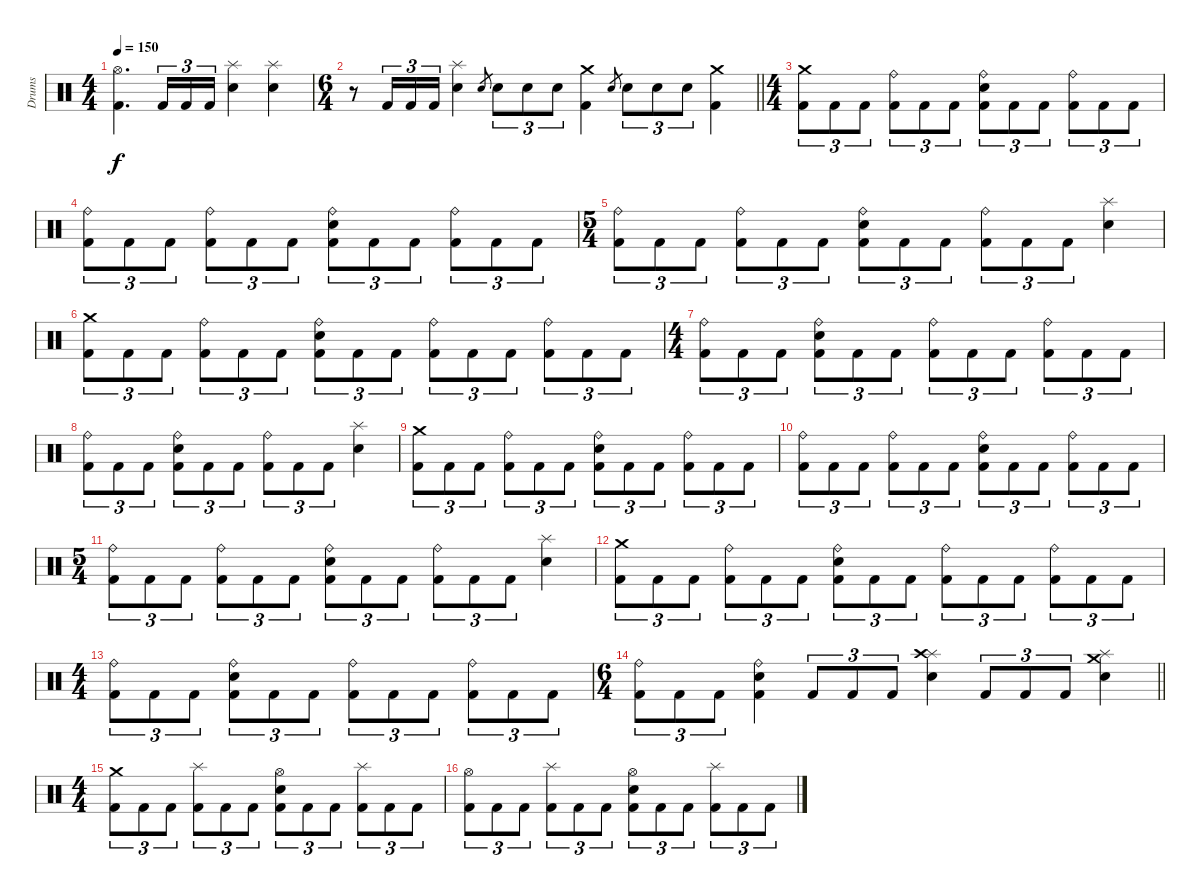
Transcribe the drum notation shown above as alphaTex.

\track ("Drums" "Drums") {instrument percussion}
\staff {score}
\articulation defaults
\ts (4 4)
\tempo 150
\clef neutral
\ks c
("Hi-Hat (open)" "Kick (hit) 2").4{d dy f} "Kick (hit) 2".16{tu (3 2)} "Kick (hit) 2".16{tu (3 2)} "Kick (hit) 2".16{tu (3 2)} ("Splash (hit)" "Electric Snare (hit)").4 ("Splash (hit)" "Electric Snare (hit)").4 |
\ts (6 4)
\barLineRight lightlight
r.8 "Kick (hit) 2".16{tu (3 2)} "Kick (hit) 2".16{tu (3 2)} "Kick (hit) 2".16{tu (3 2)} ("Splash (hit)" "Electric Snare (hit)").4 "Electric Snare (hit)".8{gr} "Electric Snare (hit)".8{tu (3 2)} "Electric Snare (hit)".8{tu (3 2)} "Electric Snare (hit)".8{tu (3 2)} ("Crash medium (hit)" "Kick (hit) 2").4 "Electric Snare (hit)".8{gr} "Electric Snare (hit)".8{tu (3 2)} "Electric Snare (hit)".8{tu (3 2)} "Electric Snare (hit)".8{tu (3 2)} ("Crash medium (hit)" "Kick (hit) 2").4 |
\ts (4 4)
("Crash medium (hit)" "Kick (hit) 2").8{tu (3 2)} "Kick (hit) 2".8{tu (3 2)} "Kick (hit) 2".8{tu (3 2)} ("Ride (bell)" "Kick (hit) 2").8{tu (3 2)} "Kick (hit) 2".8{tu (3 2)} "Kick (hit) 2".8{tu (3 2)} ("Ride (bell)" "Electric Snare (hit)" "Kick (hit) 2").8{tu (3 2)} "Kick (hit) 2".8{tu (3 2)} "Kick (hit) 2".8{tu (3 2)} ("Ride (bell)" "Kick (hit) 2").8{tu (3 2)} "Kick (hit) 2".8{tu (3 2)} "Kick (hit) 2".8{tu (3 2)} |
("Ride (bell)" "Kick (hit) 2").8{tu (3 2)} "Kick (hit) 2".8{tu (3 2)} "Kick (hit) 2".8{tu (3 2)} ("Ride (bell)" "Kick (hit) 2").8{tu (3 2)} "Kick (hit) 2".8{tu (3 2)} "Kick (hit) 2".8{tu (3 2)} ("Ride (bell)" "Electric Snare (hit)" "Kick (hit) 2").8{tu (3 2)} "Kick (hit) 2".8{tu (3 2)} "Kick (hit) 2".8{tu (3 2)} ("Ride (bell)" "Kick (hit) 2").8{tu (3 2)} "Kick (hit) 2".8{tu (3 2)} "Kick (hit) 2".8{tu (3 2)} |
\ts (5 4)
("Ride (bell)" "Kick (hit) 2").8{tu (3 2)} "Kick (hit) 2".8{tu (3 2)} "Kick (hit) 2".8{tu (3 2)} ("Ride (bell)" "Kick (hit) 2").8{tu (3 2)} "Kick (hit) 2".8{tu (3 2)} "Kick (hit) 2".8{tu (3 2)} ("Ride (bell)" "Electric Snare (hit)" "Kick (hit) 2").8{tu (3 2)} "Kick (hit) 2".8{tu (3 2)} "Kick (hit) 2".8{tu (3 2)} ("Ride (bell)" "Kick (hit) 2").8{tu (3 2)} "Kick (hit) 2".8{tu (3 2)} "Kick (hit) 2".8{tu (3 2)} ("Splash (hit)" "Electric Snare (hit)").4 |
("Crash medium (hit)" "Kick (hit) 2").8{tu (3 2)} "Kick (hit) 2".8{tu (3 2)} "Kick (hit) 2".8{tu (3 2)} ("Ride (bell)" "Kick (hit) 2").8{tu (3 2)} "Kick (hit) 2".8{tu (3 2)} "Kick (hit) 2".8{tu (3 2)} ("Ride (bell)" "Electric Snare (hit)" "Kick (hit) 2").8{tu (3 2)} "Kick (hit) 2".8{tu (3 2)} "Kick (hit) 2".8{tu (3 2)} ("Ride (bell)" "Kick (hit) 2").8{tu (3 2)} "Kick (hit) 2".8{tu (3 2)} "Kick (hit) 2".8{tu (3 2)} ("Ride (bell)" "Kick (hit) 2").8{tu (3 2)} "Kick (hit) 2".8{tu (3 2)} "Kick (hit) 2".8{tu (3 2)} |
\ts (4 4)
("Ride (bell)" "Kick (hit) 2").8{tu (3 2)} "Kick (hit) 2".8{tu (3 2)} "Kick (hit) 2".8{tu (3 2)} ("Ride (bell)" "Electric Snare (hit)" "Kick (hit) 2").8{tu (3 2)} "Kick (hit) 2".8{tu (3 2)} "Kick (hit) 2".8{tu (3 2)} ("Ride (bell)" "Kick (hit) 2").8{tu (3 2)} "Kick (hit) 2".8{tu (3 2)} "Kick (hit) 2".8{tu (3 2)} ("Ride (bell)" "Kick (hit) 2").8{tu (3 2)} "Kick (hit) 2".8{tu (3 2)} "Kick (hit) 2".8{tu (3 2)} |
("Ride (bell)" "Kick (hit) 2").8{tu (3 2)} "Kick (hit) 2".8{tu (3 2)} "Kick (hit) 2".8{tu (3 2)} ("Ride (bell)" "Electric Snare (hit)" "Kick (hit) 2").8{tu (3 2)} "Kick (hit) 2".8{tu (3 2)} "Kick (hit) 2".8{tu (3 2)} ("Ride (bell)" "Kick (hit) 2").8{tu (3 2)} "Kick (hit) 2".8{tu (3 2)} "Kick (hit) 2".8{tu (3 2)} ("Splash (hit)" "Electric Snare (hit)").4 |
("Crash medium (hit)" "Kick (hit) 2").8{tu (3 2)} "Kick (hit) 2".8{tu (3 2)} "Kick (hit) 2".8{tu (3 2)} ("Ride (bell)" "Kick (hit) 2").8{tu (3 2)} "Kick (hit) 2".8{tu (3 2)} "Kick (hit) 2".8{tu (3 2)} ("Ride (bell)" "Electric Snare (hit)" "Kick (hit) 2").8{tu (3 2)} "Kick (hit) 2".8{tu (3 2)} "Kick (hit) 2".8{tu (3 2)} ("Ride (bell)" "Kick (hit) 2").8{tu (3 2)} "Kick (hit) 2".8{tu (3 2)} "Kick (hit) 2".8{tu (3 2)} |
("Ride (bell)" "Kick (hit) 2").8{tu (3 2)} "Kick (hit) 2".8{tu (3 2)} "Kick (hit) 2".8{tu (3 2)} ("Ride (bell)" "Kick (hit) 2").8{tu (3 2)} "Kick (hit) 2".8{tu (3 2)} "Kick (hit) 2".8{tu (3 2)} ("Ride (bell)" "Electric Snare (hit)" "Kick (hit) 2").8{tu (3 2)} "Kick (hit) 2".8{tu (3 2)} "Kick (hit) 2".8{tu (3 2)} ("Ride (bell)" "Kick (hit) 2").8{tu (3 2)} "Kick (hit) 2".8{tu (3 2)} "Kick (hit) 2".8{tu (3 2)} |
\ts (5 4)
("Ride (bell)" "Kick (hit) 2").8{tu (3 2)} "Kick (hit) 2".8{tu (3 2)} "Kick (hit) 2".8{tu (3 2)} ("Ride (bell)" "Kick (hit) 2").8{tu (3 2)} "Kick (hit) 2".8{tu (3 2)} "Kick (hit) 2".8{tu (3 2)} ("Ride (bell)" "Electric Snare (hit)" "Kick (hit) 2").8{tu (3 2)} "Kick (hit) 2".8{tu (3 2)} "Kick (hit) 2".8{tu (3 2)} ("Ride (bell)" "Kick (hit) 2").8{tu (3 2)} "Kick (hit) 2".8{tu (3 2)} "Kick (hit) 2".8{tu (3 2)} ("Splash (hit)" "Electric Snare (hit)").4 |
("Crash medium (hit)" "Kick (hit) 2").8{tu (3 2)} "Kick (hit) 2".8{tu (3 2)} "Kick (hit) 2".8{tu (3 2)} ("Ride (bell)" "Kick (hit) 2").8{tu (3 2)} "Kick (hit) 2".8{tu (3 2)} "Kick (hit) 2".8{tu (3 2)} ("Ride (bell)" "Electric Snare (hit)" "Kick (hit) 2").8{tu (3 2)} "Kick (hit) 2".8{tu (3 2)} "Kick (hit) 2".8{tu (3 2)} ("Ride (bell)" "Kick (hit) 2").8{tu (3 2)} "Kick (hit) 2".8{tu (3 2)} "Kick (hit) 2".8{tu (3 2)} ("Ride (bell)" "Kick (hit) 2").8{tu (3 2)} "Kick (hit) 2".8{tu (3 2)} "Kick (hit) 2".8{tu (3 2)} |
\ts (4 4)
("Ride (bell)" "Kick (hit) 2").8{tu (3 2)} "Kick (hit) 2".8{tu (3 2)} "Kick (hit) 2".8{tu (3 2)} ("Ride (bell)" "Electric Snare (hit)" "Kick (hit) 2").8{tu (3 2)} "Kick (hit) 2".8{tu (3 2)} "Kick (hit) 2".8{tu (3 2)} ("Ride (bell)" "Kick (hit) 2").8{tu (3 2)} "Kick (hit) 2".8{tu (3 2)} "Kick (hit) 2".8{tu (3 2)} ("Ride (bell)" "Kick (hit) 2").8{tu (3 2)} "Kick (hit) 2".8{tu (3 2)} "Kick (hit) 2".8{tu (3 2)} |
\ts (6 4)
\barLineRight lightlight
("Ride (bell)" "Kick (hit) 2").8{tu (3 2)} "Kick (hit) 2".8{tu (3 2)} "Kick (hit) 2".8{tu (3 2)} ("Ride (bell)" "Electric Snare (hit)" "Kick (hit) 2").4 "Kick (hit) 2".8{tu (3 2)} "Kick (hit) 2".8{tu (3 2)} "Kick (hit) 2".8{tu (3 2)} ("Splash (hit)" "Crash high (hit)" "Electric Snare (hit)").4 "Kick (hit) 2".8{tu (3 2)} "Kick (hit) 2".8{tu (3 2)} "Kick (hit) 2".8{tu (3 2)} ("Splash (hit)" "Crash medium (hit)" "Electric Snare (hit)").4 |
\ts (4 4)
("Crash medium (hit)" "Kick (hit) 2").8{tu (3 2)} "Kick (hit) 2".8{tu (3 2)} "Kick (hit) 2".8{tu (3 2)} ("Splash (hit)" "Kick (hit) 2").8{tu (3 2)} "Kick (hit) 2".8{tu (3 2)} "Kick (hit) 2".8{tu (3 2)} ("Hi-Hat (open)" "Electric Snare (hit)" "Kick (hit) 2").8{tu (3 2)} "Kick (hit) 2".8{tu (3 2)} "Kick (hit) 2".8{tu (3 2)} ("Splash (hit)" "Kick (hit) 2").8{tu (3 2)} "Kick (hit) 2".8{tu (3 2)} "Kick (hit) 2".8{tu (3 2)} |
("Hi-Hat (open)" "Kick (hit) 2").8{tu (3 2)} "Kick (hit) 2".8{tu (3 2)} "Kick (hit) 2".8{tu (3 2)} ("Splash (hit)" "Kick (hit) 2").8{tu (3 2)} "Kick (hit) 2".8{tu (3 2)} "Kick (hit) 2".8{tu (3 2)} ("Hi-Hat (open)" "Electric Snare (hit)" "Kick (hit) 2").8{tu (3 2)} "Kick (hit) 2".8{tu (3 2)} "Kick (hit) 2".8{tu (3 2)} ("Splash (hit)" "Kick (hit) 2").8{tu (3 2)} "Kick (hit) 2".8{tu (3 2)} "Kick (hit) 2".8{tu (3 2)}
